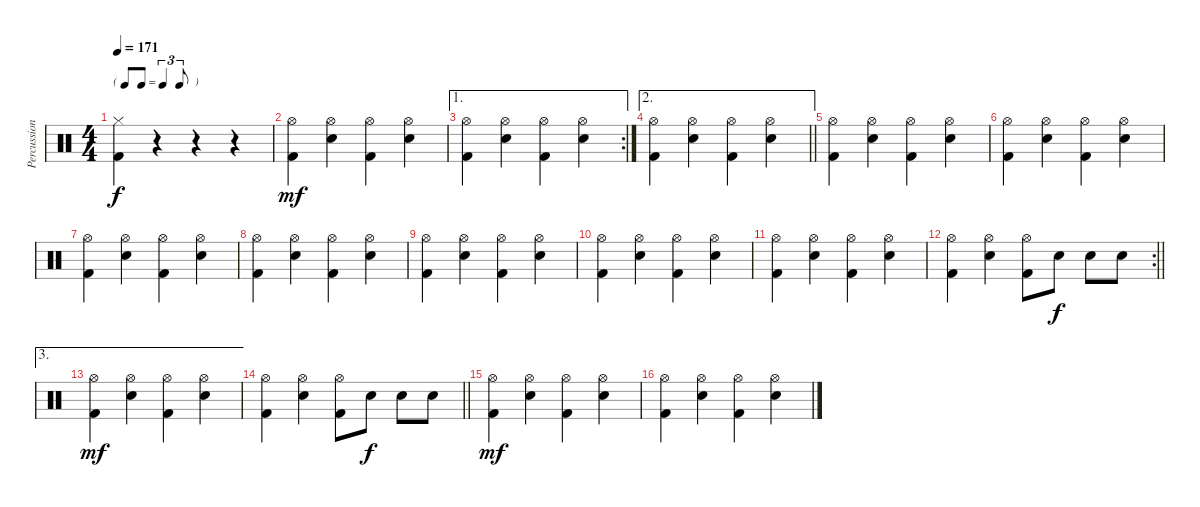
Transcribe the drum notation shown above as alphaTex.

\track ("Percussion" "Percussion") {instrument percussion}
\staff {score}
\articulation defaults
\ts (4 4)
\tf triplet8th
\tempo 171
\clef neutral
\ks c
("Hi-Hat (closed)" "Kick (hit) 2").4{dy f} r.4 r.4 r.4 |
("Hi-Hat (open)" "Kick (hit) 2").4{dy mf} ("Hi-Hat (open)" "Snare (hit) 2").4 ("Hi-Hat (open)" "Kick (hit) 2").4 ("Hi-Hat (open)" "Snare (hit) 2").4 |
\ae 1
\rc 2
("Hi-Hat (open)" "Kick (hit) 2").4 ("Hi-Hat (open)" "Snare (hit) 2").4 ("Hi-Hat (open)" "Kick (hit) 2").4 ("Hi-Hat (open)" "Snare (hit) 2").4 |
\ae 2
\barLineRight lightlight
("Hi-Hat (open)" "Kick (hit) 2").4 ("Hi-Hat (open)" "Snare (hit) 2").4 ("Hi-Hat (open)" "Kick (hit) 2").4 ("Hi-Hat (open)" "Snare (hit) 2").4 |
("Hi-Hat (open)" "Kick (hit) 2").4 ("Hi-Hat (open)" "Snare (hit) 2").4 ("Hi-Hat (open)" "Kick (hit) 2").4 ("Hi-Hat (open)" "Snare (hit) 2").4 |
("Hi-Hat (open)" "Kick (hit) 2").4 ("Hi-Hat (open)" "Snare (hit) 2").4 ("Hi-Hat (open)" "Kick (hit) 2").4 ("Hi-Hat (open)" "Snare (hit) 2").4 |
("Hi-Hat (open)" "Kick (hit) 2").4 ("Hi-Hat (open)" "Snare (hit) 2").4 ("Hi-Hat (open)" "Kick (hit) 2").4 ("Hi-Hat (open)" "Snare (hit) 2").4 |
("Hi-Hat (open)" "Kick (hit) 2").4 ("Hi-Hat (open)" "Snare (hit) 2").4 ("Hi-Hat (open)" "Kick (hit) 2").4 ("Hi-Hat (open)" "Snare (hit) 2").4 |
("Hi-Hat (open)" "Kick (hit) 2").4 ("Hi-Hat (open)" "Snare (hit) 2").4 ("Hi-Hat (open)" "Kick (hit) 2").4 ("Hi-Hat (open)" "Snare (hit) 2").4 |
("Hi-Hat (open)" "Kick (hit) 2").4 ("Hi-Hat (open)" "Snare (hit) 2").4 ("Hi-Hat (open)" "Kick (hit) 2").4 ("Hi-Hat (open)" "Snare (hit) 2").4 |
("Hi-Hat (open)" "Kick (hit) 2").4 ("Hi-Hat (open)" "Snare (hit) 2").4 ("Hi-Hat (open)" "Kick (hit) 2").4 ("Hi-Hat (open)" "Snare (hit) 2").4 |
\rc 2
\barLineRight lightlight
("Hi-Hat (open)" "Kick (hit) 2").4 ("Hi-Hat (open)" "Snare (hit) 2").4 ("Hi-Hat (open)" "Kick (hit) 2").8 "Snare (hit) 2".8{dy f} "Snare (hit) 2".8 "Snare (hit) 2".8 |
\ae 3
("Hi-Hat (open)" "Kick (hit) 2").4{dy mf} ("Hi-Hat (open)" "Snare (hit) 2").4 ("Hi-Hat (open)" "Kick (hit) 2").4 ("Hi-Hat (open)" "Snare (hit) 2").4 |
\barLineRight lightlight
("Hi-Hat (open)" "Kick (hit) 2").4 ("Hi-Hat (open)" "Snare (hit) 2").4 ("Hi-Hat (open)" "Kick (hit) 2").8 "Snare (hit) 2".8{dy f} "Snare (hit) 2".8 "Snare (hit) 2".8 |
("Hi-Hat (open)" "Kick (hit) 2").4{dy mf} ("Hi-Hat (open)" "Snare (hit) 2").4 ("Hi-Hat (open)" "Kick (hit) 2").4 ("Hi-Hat (open)" "Snare (hit) 2").4 |
("Hi-Hat (open)" "Kick (hit) 2").4 ("Hi-Hat (open)" "Snare (hit) 2").4 ("Hi-Hat (open)" "Kick (hit) 2").4 ("Hi-Hat (open)" "Snare (hit) 2").4
